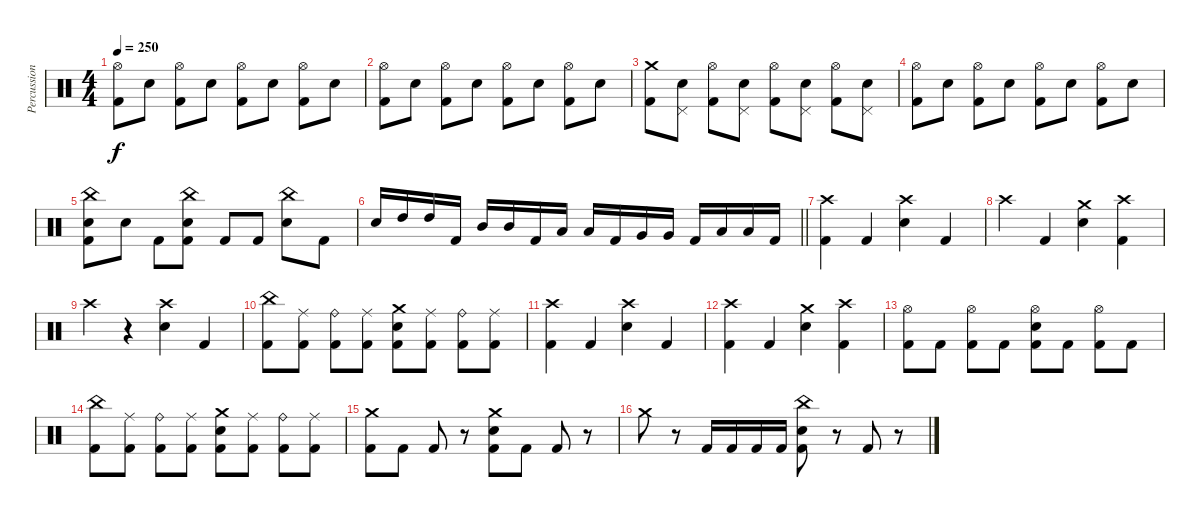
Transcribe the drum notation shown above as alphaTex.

\track ("Percussions" "Percussion") {instrument percussion}
\staff {score}
\articulation defaults
\ts (4 4)
\tempo 250
\clef neutral
\ks c
("Hi-Hat (open)" "Kick (hit) 2").8{dy f} "Electric Snare (hit)".8 ("Hi-Hat (open)" "Kick (hit) 2").8 "Electric Snare (hit)".8 ("Hi-Hat (open)" "Kick (hit) 2").8 "Electric Snare (hit)".8 ("Hi-Hat (open)" "Kick (hit) 2").8 "Electric Snare (hit)".8 |
("Hi-Hat (open)" "Kick (hit) 2").8 "Electric Snare (hit)".8 ("Hi-Hat (open)" "Kick (hit) 2").8 "Electric Snare (hit)".8 ("Hi-Hat (open)" "Kick (hit) 2").8 "Electric Snare (hit)".8 ("Hi-Hat (open)" "Kick (hit) 2").8 "Electric Snare (hit)".8 |
("Crash medium (hit)" "Kick (hit) 2").8 ("Pedal Hi-Hat (hit)" "Electric Snare (hit)").8 ("Hi-Hat (open)" "Kick (hit) 2").8 ("Pedal Hi-Hat (hit)" "Electric Snare (hit)").8 ("Hi-Hat (open)" "Kick (hit) 2").8 ("Pedal Hi-Hat (hit)" "Electric Snare (hit)").8 ("Hi-Hat (open)" "Kick (hit) 2").8 ("Pedal Hi-Hat (hit)" "Electric Snare (hit)").8 |
("Hi-Hat (open)" "Kick (hit) 2").8 "Electric Snare (hit)".8 ("Hi-Hat (open)" "Kick (hit) 2").8 "Electric Snare (hit)".8 ("Hi-Hat (open)" "Kick (hit) 2").8 "Electric Snare (hit)".8 ("Hi-Hat (open)" "Kick (hit) 2").8 "Electric Snare (hit)".8 |
("China (hit)" "Electric Snare (hit)" "Kick (hit) 2").8 "Electric Snare (hit)".8 "Kick (hit) 2".8 ("China (hit)" "Electric Snare (hit)" "Kick (hit) 2").8 "Kick (hit) 2".8 "Kick (hit) 2".8 ("China (hit)" "Electric Snare (hit)").8 "Kick (hit) 2".8 |
\barLineRight lightlight "Electric Snare (hit)".16 "High Tom (hit)".16 "High Tom (hit)".16 "Kick (hit) 2".16 "Mid Tom (hit)".16 "Mid Tom (hit)".16 "Kick (hit) 2".16 "Low Tom (hit)".16 "Low Tom (hit)".16 "Kick (hit) 2".16 "Very Low Tom (hit)".16 "Very Low Tom (hit)".16 "Kick (hit) 2".16 "Low Floor Tom (hit)".16 "Low Floor Tom (hit)".16 "Kick (hit) 2".16
|
("Crash high (hit)" "Kick (hit) 2").4 "Kick (hit) 2".4 ("Crash high (hit)" "Electric Snare (hit)").4 "Kick (hit) 2".4 |
"Crash high (hit)".4 "Kick (hit) 2".4 ("Crash medium (hit)" "Electric Snare (hit)").4 ("Crash high (hit)" "Kick (hit) 2").4 |
"Crash high (hit)".4 r.4 ("Crash high (hit)" "Electric Snare (hit)").4 "Kick (hit) 2".4 |
("China (hit)" "Kick (hit) 2").8 ("Ride (middle)" "Kick (hit) 2").8 ("Ride (bell)" "Kick (hit) 2").8 ("Ride (middle)" "Kick (hit) 2").8 ("Crash medium (hit)" "Electric Snare (hit)" "Kick (hit) 2").8 ("Ride (middle)" "Kick (hit) 2").8 ("Ride (bell)" "Kick (hit) 2").8 ("Ride (middle)" "Kick (hit) 2").8 |
("Crash high (hit)" "Kick (hit) 2").4 "Kick (hit) 2".4 ("Crash high (hit)" "Electric Snare (hit)").4 "Kick (hit) 2".4 |
("Crash high (hit)" "Kick (hit) 2").4 "Kick (hit) 2".4 ("Crash medium (hit)" "Electric Snare (hit)").4 ("Crash high (hit)" "Kick (hit) 2").4 |
("Hi-Hat (open)" "Kick (hit) 2").8 "Kick (hit) 2".8 ("Hi-Hat (open)" "Kick (hit) 2").8 "Kick (hit) 2".8 ("Hi-Hat (open)" "Electric Snare (hit)" "Kick (hit) 2").8 "Kick (hit) 2".8 ("Hi-Hat (open)" "Kick (hit) 2").8 "Kick (hit) 2".8 |
("China (hit)" "Kick (hit) 2").8 ("Ride (middle)" "Kick (hit) 2").8 ("Ride (bell)" "Kick (hit) 2").8 ("Ride (middle)" "Kick (hit) 2").8 ("Crash medium (hit)" "Electric Snare (hit)" "Kick (hit) 2").8 ("Ride (middle)" "Kick (hit) 2").8 ("Ride (bell)" "Kick (hit) 2").8 ("Ride (middle)" "Kick (hit) 2").8 |
("Crash medium (hit)" "Kick (hit) 2").8 "Kick (hit) 2".8 "Kick (hit) 2".8 r.8 ("Crash medium (hit)" "Electric Snare (hit)" "Kick (hit) 2").8 "Kick (hit) 2".8 "Kick (hit) 2".8 r.8 |
"Crash medium (hit)".8 r.8 "Kick (hit) 2".16 "Kick (hit) 2".16 "Kick (hit) 2".16 "Kick (hit) 2".16 ("China (hit)" "Electric Snare (hit)" "Kick (hit) 2").8 r.8 "Kick (hit) 2".8 r.8
